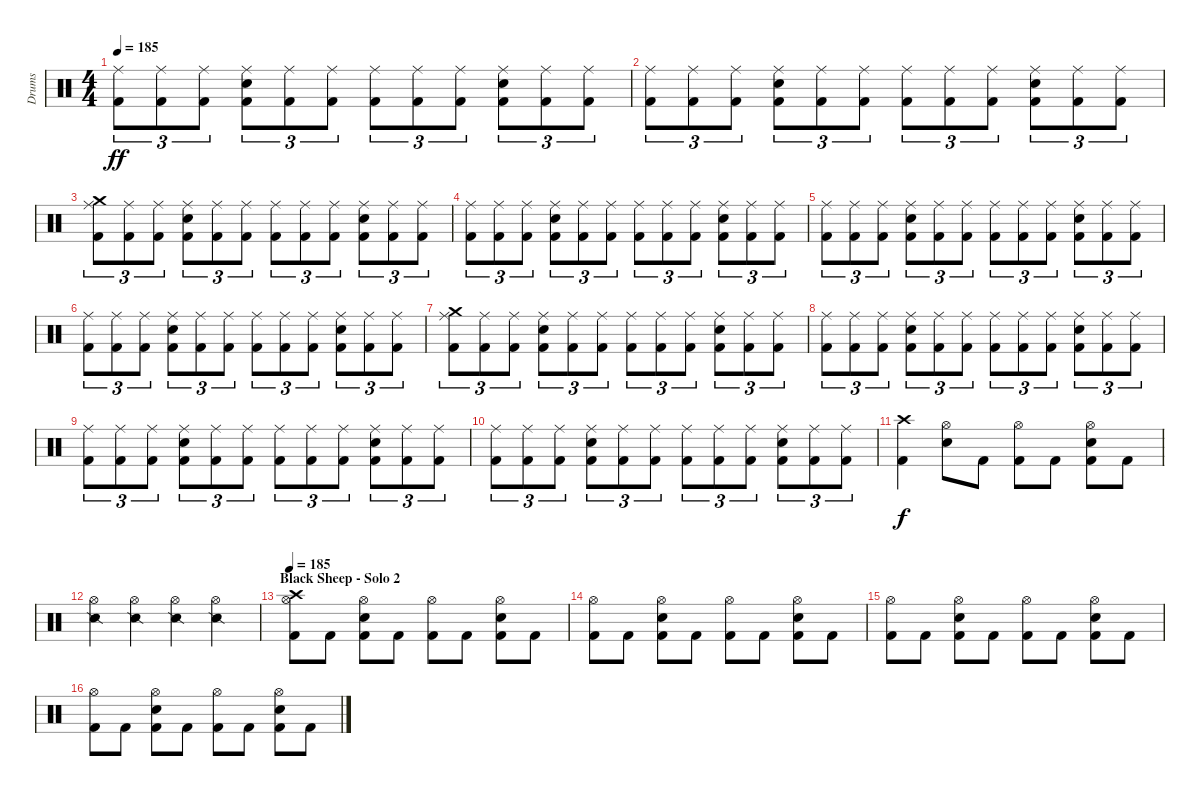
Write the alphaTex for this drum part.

\track ("Drums" "Drums") {instrument percussion}
\staff {score}
\articulation defaults
\ts (4 4)
\tempo 185
\clef neutral
\ks c
("Ride (middle)" "Kick (hit) 2").8{tu (3 2) dy ff} ("Ride (middle)" "Kick (hit) 2").8{tu (3 2)} ("Ride (middle)" "Kick (hit) 2").8{tu (3 2)} ("Ride (middle)" "Snare (hit) 2" "Kick (hit) 2").8{tu (3 2)} ("Ride (middle)" "Kick (hit) 2").8{tu (3 2)} ("Ride (middle)" "Kick (hit) 2").8{tu (3 2)} ("Ride (middle)" "Kick (hit) 2").8{tu (3 2)} ("Ride (middle)" "Kick (hit) 2").8{tu (3 2)} ("Ride (middle)" "Kick (hit) 2").8{tu (3 2)} ("Ride (middle)" "Snare (hit) 2" "Kick (hit) 2").8{tu (3 2)} ("Ride (middle)" "Kick (hit) 2").8{tu (3 2)} ("Ride (middle)" "Kick (hit) 2").8{tu (3 2)} |
("Ride (middle)" "Kick (hit) 2").8{tu (3 2)} ("Ride (middle)" "Kick (hit) 2").8{tu (3 2)} ("Ride (middle)" "Kick (hit) 2").8{tu (3 2)} ("Ride (middle)" "Snare (hit) 2" "Kick (hit) 2").8{tu (3 2)} ("Ride (middle)" "Kick (hit) 2").8{tu (3 2)} ("Ride (middle)" "Kick (hit) 2").8{tu (3 2)} ("Ride (middle)" "Kick (hit) 2").8{tu (3 2)} ("Ride (middle)" "Kick (hit) 2").8{tu (3 2)} ("Ride (middle)" "Kick (hit) 2").8{tu (3 2)} ("Ride (middle)" "Snare (hit) 2" "Kick (hit) 2").8{tu (3 2)} ("Ride (middle)" "Kick (hit) 2").8{tu (3 2)} ("Ride (middle)" "Kick (hit) 2").8{tu (3 2)} |
("Crash medium (hit)" "Ride (middle)" "Kick (hit) 2").8{tu (3 2)} ("Ride (middle)" "Kick (hit) 2").8{tu (3 2)} ("Ride (middle)" "Kick (hit) 2").8{tu (3 2)} ("Ride (middle)" "Snare (hit) 2" "Kick (hit) 2").8{tu (3 2)} ("Ride (middle)" "Kick (hit) 2").8{tu (3 2)} ("Ride (middle)" "Kick (hit) 2").8{tu (3 2)} ("Ride (middle)" "Kick (hit) 2").8{tu (3 2)} ("Ride (middle)" "Kick (hit) 2").8{tu (3 2)} ("Ride (middle)" "Kick (hit) 2").8{tu (3 2)} ("Ride (middle)" "Snare (hit) 2" "Kick (hit) 2").8{tu (3 2)} ("Ride (middle)" "Kick (hit) 2").8{tu (3 2)} ("Ride (middle)" "Kick (hit) 2").8{tu (3 2)} |
("Ride (middle)" "Kick (hit) 2").8{tu (3 2)} ("Ride (middle)" "Kick (hit) 2").8{tu (3 2)} ("Ride (middle)" "Kick (hit) 2").8{tu (3 2)} ("Ride (middle)" "Snare (hit) 2" "Kick (hit) 2").8{tu (3 2)} ("Ride (middle)" "Kick (hit) 2").8{tu (3 2)} ("Ride (middle)" "Kick (hit) 2").8{tu (3 2)} ("Ride (middle)" "Kick (hit) 2").8{tu (3 2)} ("Ride (middle)" "Kick (hit) 2").8{tu (3 2)} ("Ride (middle)" "Kick (hit) 2").8{tu (3 2)} ("Ride (middle)" "Snare (hit) 2" "Kick (hit) 2").8{tu (3 2)} ("Ride (middle)" "Kick (hit) 2").8{tu (3 2)} ("Ride (middle)" "Kick (hit) 2").8{tu (3 2)} |
("Ride (middle)" "Kick (hit) 2").8{tu (3 2)} ("Ride (middle)" "Kick (hit) 2").8{tu (3 2)} ("Ride (middle)" "Kick (hit) 2").8{tu (3 2)} ("Ride (middle)" "Snare (hit) 2" "Kick (hit) 2").8{tu (3 2)} ("Ride (middle)" "Kick (hit) 2").8{tu (3 2)} ("Ride (middle)" "Kick (hit) 2").8{tu (3 2)} ("Ride (middle)" "Kick (hit) 2").8{tu (3 2)} ("Ride (middle)" "Kick (hit) 2").8{tu (3 2)} ("Ride (middle)" "Kick (hit) 2").8{tu (3 2)} ("Ride (middle)" "Snare (hit) 2" "Kick (hit) 2").8{tu (3 2)} ("Ride (middle)" "Kick (hit) 2").8{tu (3 2)} ("Ride (middle)" "Kick (hit) 2").8{tu (3 2)} |
("Ride (middle)" "Kick (hit) 2").8{tu (3 2)} ("Ride (middle)" "Kick (hit) 2").8{tu (3 2)} ("Ride (middle)" "Kick (hit) 2").8{tu (3 2)} ("Ride (middle)" "Snare (hit) 2" "Kick (hit) 2").8{tu (3 2)} ("Ride (middle)" "Kick (hit) 2").8{tu (3 2)} ("Ride (middle)" "Kick (hit) 2").8{tu (3 2)} ("Ride (middle)" "Kick (hit) 2").8{tu (3 2)} ("Ride (middle)" "Kick (hit) 2").8{tu (3 2)} ("Ride (middle)" "Kick (hit) 2").8{tu (3 2)} ("Ride (middle)" "Snare (hit) 2" "Kick (hit) 2").8{tu (3 2)} ("Ride (middle)" "Kick (hit) 2").8{tu (3 2)} ("Ride (middle)" "Kick (hit) 2").8{tu (3 2)} |
("Crash medium (hit)" "Ride (middle)" "Kick (hit) 2").8{tu (3 2)} ("Ride (middle)" "Kick (hit) 2").8{tu (3 2)} ("Ride (middle)" "Kick (hit) 2").8{tu (3 2)} ("Ride (middle)" "Snare (hit) 2" "Kick (hit) 2").8{tu (3 2)} ("Ride (middle)" "Kick (hit) 2").8{tu (3 2)} ("Ride (middle)" "Kick (hit) 2").8{tu (3 2)} ("Ride (middle)" "Kick (hit) 2").8{tu (3 2)} ("Ride (middle)" "Kick (hit) 2").8{tu (3 2)} ("Ride (middle)" "Kick (hit) 2").8{tu (3 2)} ("Ride (middle)" "Snare (hit) 2" "Kick (hit) 2").8{tu (3 2)} ("Ride (middle)" "Kick (hit) 2").8{tu (3 2)} ("Ride (middle)" "Kick (hit) 2").8{tu (3 2)} |
("Ride (middle)" "Kick (hit) 2").8{tu (3 2)} ("Ride (middle)" "Kick (hit) 2").8{tu (3 2)} ("Ride (middle)" "Kick (hit) 2").8{tu (3 2)} ("Ride (middle)" "Snare (hit) 2" "Kick (hit) 2").8{tu (3 2)} ("Ride (middle)" "Kick (hit) 2").8{tu (3 2)} ("Ride (middle)" "Kick (hit) 2").8{tu (3 2)} ("Ride (middle)" "Kick (hit) 2").8{tu (3 2)} ("Ride (middle)" "Kick (hit) 2").8{tu (3 2)} ("Ride (middle)" "Kick (hit) 2").8{tu (3 2)} ("Ride (middle)" "Snare (hit) 2" "Kick (hit) 2").8{tu (3 2)} ("Ride (middle)" "Kick (hit) 2").8{tu (3 2)} ("Ride (middle)" "Kick (hit) 2").8{tu (3 2)} |
("Ride (middle)" "Kick (hit) 2").8{tu (3 2)} ("Ride (middle)" "Kick (hit) 2").8{tu (3 2)} ("Ride (middle)" "Kick (hit) 2").8{tu (3 2)} ("Ride (middle)" "Snare (hit) 2" "Kick (hit) 2").8{tu (3 2)} ("Ride (middle)" "Kick (hit) 2").8{tu (3 2)} ("Ride (middle)" "Kick (hit) 2").8{tu (3 2)} ("Ride (middle)" "Kick (hit) 2").8{tu (3 2)} ("Ride (middle)" "Kick (hit) 2").8{tu (3 2)} ("Ride (middle)" "Kick (hit) 2").8{tu (3 2)} ("Ride (middle)" "Snare (hit) 2" "Kick (hit) 2").8{tu (3 2)} ("Ride (middle)" "Kick (hit) 2").8{tu (3 2)} ("Ride (middle)" "Kick (hit) 2").8{tu (3 2)} |
("Ride (middle)" "Kick (hit) 2").8{tu (3 2)} ("Ride (middle)" "Kick (hit) 2").8{tu (3 2)} ("Ride (middle)" "Kick (hit) 2").8{tu (3 2)} ("Ride (middle)" "Snare (hit) 2" "Kick (hit) 2").8{tu (3 2)} ("Ride (middle)" "Kick (hit) 2").8{tu (3 2)} ("Ride (middle)" "Kick (hit) 2").8{tu (3 2)} ("Ride (middle)" "Kick (hit) 2").8{tu (3 2)} ("Ride (middle)" "Kick (hit) 2").8{tu (3 2)} ("Ride (middle)" "Kick (hit) 2").8{tu (3 2)} ("Ride (middle)" "Snare (hit) 2" "Kick (hit) 2").8{tu (3 2)} ("Ride (middle)" "Kick (hit) 2").8{tu (3 2)} ("Ride (middle)" "Kick (hit) 2").8{tu (3 2)} |
("Crash high (hit)" "Kick (hit) 2").4{dy f} ("Hi-Hat (open)" "Snare (hit) 2").8 "Kick (hit) 2".8 ("Hi-Hat (open)" "Kick (hit) 2").8 "Kick (hit) 2".8 ("Hi-Hat (open)" "Snare (hit) 2" "Kick (hit) 2").8 "Kick (hit) 2".8 |
("Snare (side stick) 2" "Hi-Hat (open)").4 ("Snare (side stick) 2" "Hi-Hat (open)").4 ("Snare (side stick) 2" "Hi-Hat (open)").4 ("Snare (side stick) 2" "Hi-Hat (open)").4 |
\section ("" "Black Sheep - Solo 2")
\tempo 185
("Crash high (hit)" "Hi-Hat (open)" "Kick (hit) 2").8 "Kick (hit) 2".8 ("Hi-Hat (open)" "Snare (hit) 2" "Kick (hit) 2").8 "Kick (hit) 2".8 ("Hi-Hat (open)" "Kick (hit) 2").8 "Kick (hit) 2".8 ("Hi-Hat (open)" "Snare (hit) 2" "Kick (hit) 2").8 "Kick (hit) 2".8 |
("Hi-Hat (open)" "Kick (hit) 2").8 "Kick (hit) 2".8 ("Hi-Hat (open)" "Snare (hit) 2" "Kick (hit) 2").8 "Kick (hit) 2".8 ("Hi-Hat (open)" "Kick (hit) 2").8 "Kick (hit) 2".8 ("Hi-Hat (open)" "Snare (hit) 2" "Kick (hit) 2").8 "Kick (hit) 2".8 |
("Hi-Hat (open)" "Kick (hit) 2").8 "Kick (hit) 2".8 ("Hi-Hat (open)" "Snare (hit) 2" "Kick (hit) 2").8 "Kick (hit) 2".8 ("Hi-Hat (open)" "Kick (hit) 2").8 "Kick (hit) 2".8 ("Hi-Hat (open)" "Snare (hit) 2" "Kick (hit) 2").8 "Kick (hit) 2".8 |
("Hi-Hat (open)" "Kick (hit) 2").8 "Kick (hit) 2".8 ("Hi-Hat (open)" "Snare (hit) 2" "Kick (hit) 2").8 "Kick (hit) 2".8 ("Hi-Hat (open)" "Kick (hit) 2").8 "Kick (hit) 2".8 ("Hi-Hat (open)" "Snare (hit) 2" "Kick (hit) 2").8 "Kick (hit) 2".8
